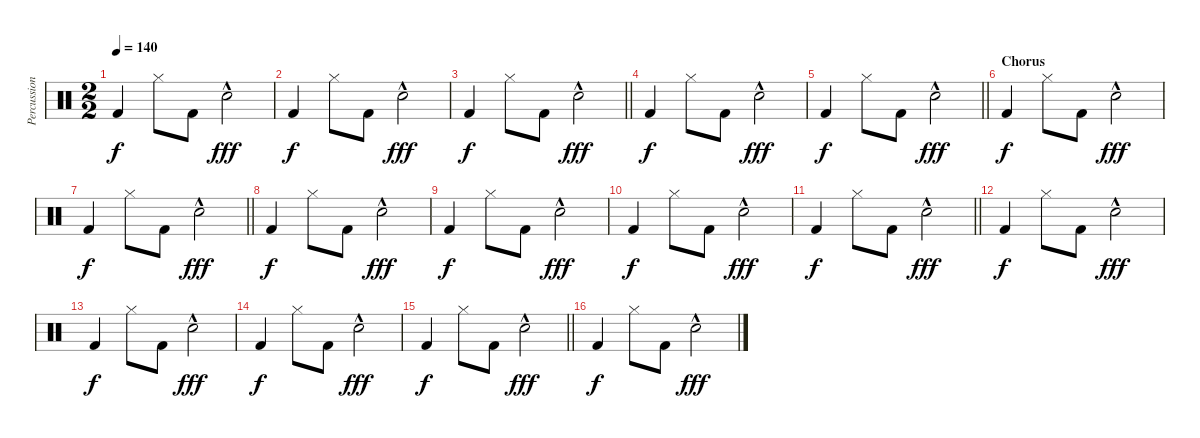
\track ("Percussion" "Percussion") {instrument percussion}
\staff {score}
\articulation defaults
\ts (2 2)
\tempo 140
\clef neutral
\ks c "Kick (hit) 2".4{dy f} "Hi-Hat (closed)".8 "Kick (hit) 2".8 "Hand Clap (hit)"{hac}.2{dy fff}
|
"Kick (hit) 2".4{dy f} "Hi-Hat (closed)".8 "Kick (hit) 2".8 "Hand Clap (hit)"{hac}.2{dy fff} |
\barLineRight lightlight "Kick (hit) 2".4{dy f} "Hi-Hat (closed)".8 "Kick (hit) 2".8 "Hand Clap (hit)"{hac}.2{dy fff}
|
"Kick (hit) 2".4{dy f} "Hi-Hat (closed)".8 "Kick (hit) 2".8 "Hand Clap (hit)"{hac}.2{dy fff} |
\barLineRight lightlight "Kick (hit) 2".4{dy f} "Hi-Hat (closed)".8 "Kick (hit) 2".8 "Hand Clap (hit)"{hac}.2{dy fff}
|
\section ("" "Chorus")
"Kick (hit) 2".4{dy f} "Hi-Hat (closed)".8 "Kick (hit) 2".8 "Hand Clap (hit)"{hac}.2{dy fff} |
\barLineRight lightlight "Kick (hit) 2".4{dy f} "Hi-Hat (closed)".8 "Kick (hit) 2".8 "Hand Clap (hit)"{hac}.2{dy fff}
|
"Kick (hit) 2".4{dy f} "Hi-Hat (closed)".8 "Kick (hit) 2".8 "Hand Clap (hit)"{hac}.2{dy fff} |
"Kick (hit) 2".4{dy f} "Hi-Hat (closed)".8 "Kick (hit) 2".8 "Hand Clap (hit)"{hac}.2{dy fff} |
"Kick (hit) 2".4{dy f} "Hi-Hat (closed)".8 "Kick (hit) 2".8 "Hand Clap (hit)"{hac}.2{dy fff} |
\barLineRight lightlight "Kick (hit) 2".4{dy f} "Hi-Hat (closed)".8 "Kick (hit) 2".8 "Hand Clap (hit)"{hac}.2{dy fff}
|
"Kick (hit) 2".4{dy f} "Hi-Hat (closed)".8 "Kick (hit) 2".8 "Hand Clap (hit)"{hac}.2{dy fff} |
"Kick (hit) 2".4{dy f} "Hi-Hat (closed)".8 "Kick (hit) 2".8 "Hand Clap (hit)"{hac}.2{dy fff} |
"Kick (hit) 2".4{dy f} "Hi-Hat (closed)".8 "Kick (hit) 2".8 "Hand Clap (hit)"{hac}.2{dy fff} |
\barLineRight lightlight "Kick (hit) 2".4{dy f} "Hi-Hat (closed)".8 "Kick (hit) 2".8 "Hand Clap (hit)"{hac}.2{dy fff}
|
"Kick (hit) 2".4{dy f} "Hi-Hat (closed)".8 "Kick (hit) 2".8 "Hand Clap (hit)"{hac}.2{dy fff}
